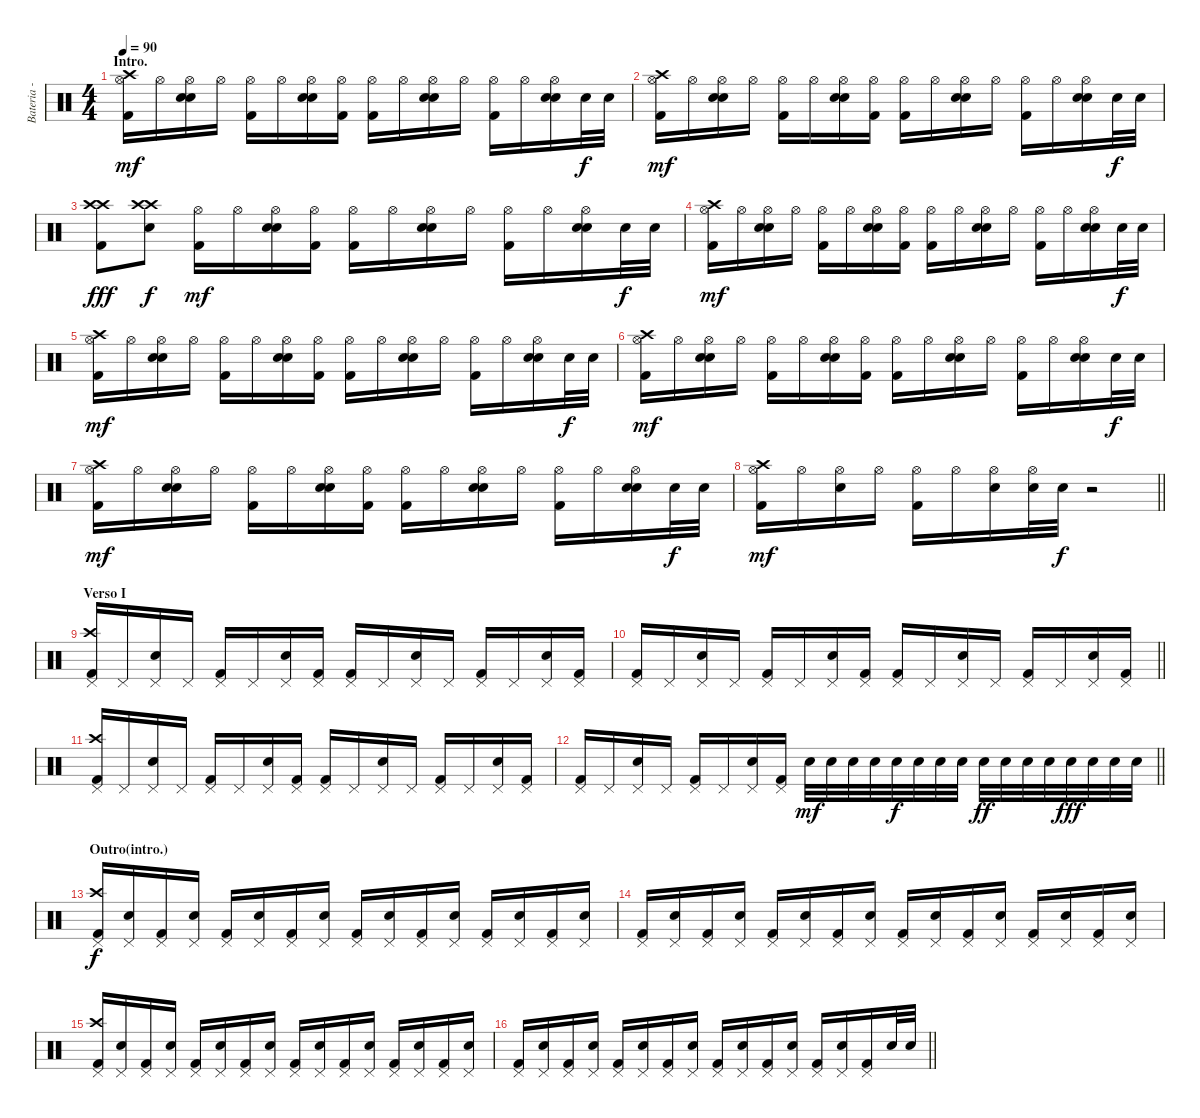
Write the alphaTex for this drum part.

\track ("Bateria - Larzon" "Bateria - ") {instrument percussion}
\staff {score}
\articulation defaults
\ts (4 4)
\section ("" "Intro.")
\tempo 90
\clef neutral
\ks c
("Kick (hit) 2" "Crash high (hit)" "Hi-Hat (open)").16{dy mf} "Hi-Hat (open)".16 ("Snare (hit) 2" "Snare (hit) 2" "Hi-Hat (open)").16 "Hi-Hat (open)".16 ("Kick (hit) 2" "Hi-Hat (open)").16 "Hi-Hat (open)".16 ("Snare (hit) 2" "Snare (hit) 2" "Hi-Hat (open)").16 ("Kick (hit) 2" "Hi-Hat (open)").16 ("Kick (hit) 2" "Hi-Hat (open)").16 "Hi-Hat (open)".16 ("Snare (hit) 2" "Snare (hit) 2" "Hi-Hat (open)").16 "Hi-Hat (open)".16 ("Kick (hit) 2" "Hi-Hat (open)").16 "Hi-Hat (open)".16 ("Snare (hit) 2" "Snare (hit) 2" "Hi-Hat (open)").16 "Snare (hit) 2".32{dy f} "Snare (hit) 2".32 |
("Kick (hit) 2" "Crash high (hit)" "Hi-Hat (open)").16{dy mf} "Hi-Hat (open)".16 ("Snare (hit) 2" "Snare (hit) 2" "Hi-Hat (open)").16 "Hi-Hat (open)".16 ("Kick (hit) 2" "Hi-Hat (open)").16 "Hi-Hat (open)".16 ("Snare (hit) 2" "Snare (hit) 2" "Hi-Hat (open)").16 ("Kick (hit) 2" "Hi-Hat (open)").16 ("Kick (hit) 2" "Hi-Hat (open)").16 "Hi-Hat (open)".16 ("Snare (hit) 2" "Snare (hit) 2" "Hi-Hat (open)").16 "Hi-Hat (open)".16 ("Kick (hit) 2" "Hi-Hat (open)").16 "Hi-Hat (open)".16 ("Snare (hit) 2" "Snare (hit) 2" "Hi-Hat (open)").16 "Snare (hit) 2".32{dy f} "Snare (hit) 2".32 |
("Kick (hit) 2" "Crash high (hit)" "Crash high (hit)").8{dy fff} ("Snare (hit) 2" "Crash high (hit)" "Crash high (hit)").8{dy f} ("Kick (hit) 2" "Hi-Hat (open)").16{dy mf} "Hi-Hat (open)".16 ("Snare (hit) 2" "Snare (hit) 2" "Hi-Hat (open)").16 ("Kick (hit) 2" "Hi-Hat (open)").16 ("Kick (hit) 2" "Hi-Hat (open)").16 "Hi-Hat (open)".16 ("Snare (hit) 2" "Snare (hit) 2" "Hi-Hat (open)").16 "Hi-Hat (open)".16 ("Kick (hit) 2" "Hi-Hat (open)").16 "Hi-Hat (open)".16 ("Snare (hit) 2" "Snare (hit) 2" "Hi-Hat (open)").16 "Snare (hit) 2".32{dy f} "Snare (hit) 2".32 |
("Kick (hit) 2" "Crash high (hit)" "Hi-Hat (open)").16{dy mf} "Hi-Hat (open)".16 ("Snare (hit) 2" "Snare (hit) 2" "Hi-Hat (open)").16 "Hi-Hat (open)".16 ("Kick (hit) 2" "Hi-Hat (open)").16 "Hi-Hat (open)".16 ("Snare (hit) 2" "Snare (hit) 2" "Hi-Hat (open)").16 ("Kick (hit) 2" "Hi-Hat (open)").16 ("Kick (hit) 2" "Hi-Hat (open)").16 "Hi-Hat (open)".16 ("Snare (hit) 2" "Snare (hit) 2" "Hi-Hat (open)").16 "Hi-Hat (open)".16 ("Kick (hit) 2" "Hi-Hat (open)").16 "Hi-Hat (open)".16 ("Snare (hit) 2" "Snare (hit) 2" "Hi-Hat (open)").16 "Snare (hit) 2".32{dy f} "Snare (hit) 2".32 |
("Kick (hit) 2" "Crash high (hit)" "Hi-Hat (open)").16{dy mf} "Hi-Hat (open)".16 ("Snare (hit) 2" "Snare (hit) 2" "Hi-Hat (open)").16 "Hi-Hat (open)".16 ("Kick (hit) 2" "Hi-Hat (open)").16 "Hi-Hat (open)".16 ("Snare (hit) 2" "Snare (hit) 2" "Hi-Hat (open)").16 ("Kick (hit) 2" "Hi-Hat (open)").16 ("Kick (hit) 2" "Hi-Hat (open)").16 "Hi-Hat (open)".16 ("Snare (hit) 2" "Snare (hit) 2" "Hi-Hat (open)").16 "Hi-Hat (open)".16 ("Kick (hit) 2" "Hi-Hat (open)").16 "Hi-Hat (open)".16 ("Snare (hit) 2" "Snare (hit) 2" "Hi-Hat (open)").16 "Snare (hit) 2".32{dy f} "Snare (hit) 2".32 |
("Kick (hit) 2" "Crash high (hit)" "Hi-Hat (open)").16{dy mf} "Hi-Hat (open)".16 ("Snare (hit) 2" "Snare (hit) 2" "Hi-Hat (open)").16 "Hi-Hat (open)".16 ("Kick (hit) 2" "Hi-Hat (open)").16 "Hi-Hat (open)".16 ("Snare (hit) 2" "Snare (hit) 2" "Hi-Hat (open)").16 ("Kick (hit) 2" "Hi-Hat (open)").16 ("Kick (hit) 2" "Hi-Hat (open)").16 "Hi-Hat (open)".16 ("Snare (hit) 2" "Snare (hit) 2" "Hi-Hat (open)").16 "Hi-Hat (open)".16 ("Kick (hit) 2" "Hi-Hat (open)").16 "Hi-Hat (open)".16 ("Snare (hit) 2" "Snare (hit) 2" "Hi-Hat (open)").16 "Snare (hit) 2".32{dy f} "Snare (hit) 2".32 |
("Kick (hit) 2" "Crash high (hit)" "Hi-Hat (open)").16{dy mf} "Hi-Hat (open)".16 ("Snare (hit) 2" "Snare (hit) 2" "Hi-Hat (open)").16 "Hi-Hat (open)".16 ("Kick (hit) 2" "Hi-Hat (open)").16 "Hi-Hat (open)".16 ("Snare (hit) 2" "Snare (hit) 2" "Hi-Hat (open)").16 ("Kick (hit) 2" "Hi-Hat (open)").16 ("Kick (hit) 2" "Hi-Hat (open)").16 "Hi-Hat (open)".16 ("Snare (hit) 2" "Snare (hit) 2" "Hi-Hat (open)").16 "Hi-Hat (open)".16 ("Kick (hit) 2" "Hi-Hat (open)").16 "Hi-Hat (open)".16 ("Snare (hit) 2" "Snare (hit) 2" "Hi-Hat (open)").16 "Snare (hit) 2".32{dy f} "Snare (hit) 2".32 |
\barLineRight lightlight
("Kick (hit) 2" "Crash high (hit)" "Hi-Hat (open)").16{dy mf} "Hi-Hat (open)".16 ("Snare (hit) 2" "Hi-Hat (open)").16 "Hi-Hat (open)".16 ("Kick (hit) 2" "Hi-Hat (open)").16 "Hi-Hat (open)".16 ("Snare (hit) 2" "Hi-Hat (open)").16 ("Snare (hit) 2" "Hi-Hat (open)").32 "Snare (hit) 2".32{dy f} r.2 |
\section ("" "Verso I")
("Kick (hit) 2" "Pedal Hi-Hat (hit)" "Crash high (hit)").16 "Pedal Hi-Hat (hit)".16 ("Snare (hit) 2" "Pedal Hi-Hat (hit)").16 "Pedal Hi-Hat (hit)".16 ("Kick (hit) 2" "Pedal Hi-Hat (hit)").16 "Pedal Hi-Hat (hit)".16 ("Snare (hit) 2" "Pedal Hi-Hat (hit)").16 ("Kick (hit) 2" "Pedal Hi-Hat (hit)").16 ("Kick (hit) 2" "Pedal Hi-Hat (hit)").16 "Pedal Hi-Hat (hit)".16 ("Snare (hit) 2" "Pedal Hi-Hat (hit)").16 "Pedal Hi-Hat (hit)".16 ("Kick (hit) 2" "Pedal Hi-Hat (hit)").16 "Pedal Hi-Hat (hit)".16 ("Snare (hit) 2" "Pedal Hi-Hat (hit)").16 ("Kick (hit) 2" "Pedal Hi-Hat (hit)").16 |
\barLineRight lightlight
("Kick (hit) 2" "Pedal Hi-Hat (hit)").16 "Pedal Hi-Hat (hit)".16 ("Snare (hit) 2" "Pedal Hi-Hat (hit)").16 "Pedal Hi-Hat (hit)".16 ("Kick (hit) 2" "Pedal Hi-Hat (hit)").16 "Pedal Hi-Hat (hit)".16 ("Snare (hit) 2" "Pedal Hi-Hat (hit)").16 ("Kick (hit) 2" "Pedal Hi-Hat (hit)").16 ("Kick (hit) 2" "Pedal Hi-Hat (hit)").16 "Pedal Hi-Hat (hit)".16 ("Snare (hit) 2" "Pedal Hi-Hat (hit)").16 "Pedal Hi-Hat (hit)".16 ("Kick (hit) 2" "Pedal Hi-Hat (hit)").16 "Pedal Hi-Hat (hit)".16 ("Snare (hit) 2" "Pedal Hi-Hat (hit)").16 ("Kick (hit) 2" "Pedal Hi-Hat (hit)").16 |
("Kick (hit) 2" "Pedal Hi-Hat (hit)" "Crash high (hit)").16 "Pedal Hi-Hat (hit)".16 ("Snare (hit) 2" "Pedal Hi-Hat (hit)").16 "Pedal Hi-Hat (hit)".16 ("Kick (hit) 2" "Pedal Hi-Hat (hit)").16 "Pedal Hi-Hat (hit)".16 ("Snare (hit) 2" "Pedal Hi-Hat (hit)").16 ("Kick (hit) 2" "Pedal Hi-Hat (hit)").16 ("Kick (hit) 2" "Pedal Hi-Hat (hit)").16 "Pedal Hi-Hat (hit)".16 ("Snare (hit) 2" "Pedal Hi-Hat (hit)").16 "Pedal Hi-Hat (hit)".16 ("Kick (hit) 2" "Pedal Hi-Hat (hit)").16 "Pedal Hi-Hat (hit)".16 ("Snare (hit) 2" "Pedal Hi-Hat (hit)").16 ("Kick (hit) 2" "Pedal Hi-Hat (hit)").16 |
\barLineRight lightlight
("Kick (hit) 2" "Pedal Hi-Hat (hit)").16 "Pedal Hi-Hat (hit)".16 ("Snare (hit) 2" "Pedal Hi-Hat (hit)").16 "Pedal Hi-Hat (hit)".16 ("Kick (hit) 2" "Pedal Hi-Hat (hit)").16 "Pedal Hi-Hat (hit)".16 ("Snare (hit) 2" "Pedal Hi-Hat (hit)").16 ("Kick (hit) 2" "Pedal Hi-Hat (hit)").16 "Snare (hit) 2".32{dy mf} "Snare (hit) 2".32 "Snare (hit) 2".32 "Snare (hit) 2".32 "Snare (hit) 2".32{dy f} "Snare (hit) 2".32 "Snare (hit) 2".32 "Snare (hit) 2".32 "Snare (hit) 2".32{dy ff} "Snare (hit) 2".32 "Snare (hit) 2".32 "Snare (hit) 2".32 "Snare (hit) 2".32{dy fff} "Snare (hit) 2".32 "Snare (hit) 2".32 "Snare (hit) 2".32 |
\section ("" "Outro(intro.)")
("Kick (hit) 2" "Crash high (hit)" "Pedal Hi-Hat (hit)").16{dy f} ("Snare (hit) 2" "Pedal Hi-Hat (hit)").16 ("Kick (hit) 2" "Pedal Hi-Hat (hit)").16 ("Snare (hit) 2" "Pedal Hi-Hat (hit)").16 ("Kick (hit) 2" "Pedal Hi-Hat (hit)").16 ("Snare (hit) 2" "Pedal Hi-Hat (hit)").16 ("Kick (hit) 2" "Pedal Hi-Hat (hit)").16 ("Snare (hit) 2" "Pedal Hi-Hat (hit)").16 ("Kick (hit) 2" "Pedal Hi-Hat (hit)").16 ("Snare (hit) 2" "Pedal Hi-Hat (hit)").16 ("Kick (hit) 2" "Pedal Hi-Hat (hit)").16 ("Snare (hit) 2" "Pedal Hi-Hat (hit)").16 ("Kick (hit) 2" "Pedal Hi-Hat (hit)").16 ("Snare (hit) 2" "Pedal Hi-Hat (hit)").16 ("Kick (hit) 2" "Pedal Hi-Hat (hit)").16 ("Snare (hit) 2" "Pedal Hi-Hat (hit)").16 |
("Kick (hit) 2" "Pedal Hi-Hat (hit)").16 ("Snare (hit) 2" "Pedal Hi-Hat (hit)").16 ("Kick (hit) 2" "Pedal Hi-Hat (hit)").16 ("Snare (hit) 2" "Pedal Hi-Hat (hit)").16 ("Kick (hit) 2" "Pedal Hi-Hat (hit)").16 ("Snare (hit) 2" "Pedal Hi-Hat (hit)").16 ("Kick (hit) 2" "Pedal Hi-Hat (hit)").16 ("Snare (hit) 2" "Pedal Hi-Hat (hit)").16 ("Kick (hit) 2" "Pedal Hi-Hat (hit)").16 ("Snare (hit) 2" "Pedal Hi-Hat (hit)").16 ("Kick (hit) 2" "Pedal Hi-Hat (hit)").16 ("Snare (hit) 2" "Pedal Hi-Hat (hit)").16 ("Kick (hit) 2" "Pedal Hi-Hat (hit)").16 ("Snare (hit) 2" "Pedal Hi-Hat (hit)").16 ("Kick (hit) 2" "Pedal Hi-Hat (hit)").16 ("Snare (hit) 2" "Pedal Hi-Hat (hit)").16 |
("Kick (hit) 2" "Crash high (hit)" "Pedal Hi-Hat (hit)").16 ("Snare (hit) 2" "Pedal Hi-Hat (hit)").16 ("Kick (hit) 2" "Pedal Hi-Hat (hit)").16 ("Snare (hit) 2" "Pedal Hi-Hat (hit)").16 ("Kick (hit) 2" "Pedal Hi-Hat (hit)").16 ("Snare (hit) 2" "Pedal Hi-Hat (hit)").16 ("Kick (hit) 2" "Pedal Hi-Hat (hit)").16 ("Snare (hit) 2" "Pedal Hi-Hat (hit)").16 ("Kick (hit) 2" "Pedal Hi-Hat (hit)").16 ("Snare (hit) 2" "Pedal Hi-Hat (hit)").16 ("Kick (hit) 2" "Pedal Hi-Hat (hit)").16 ("Snare (hit) 2" "Pedal Hi-Hat (hit)").16 ("Kick (hit) 2" "Pedal Hi-Hat (hit)").16 ("Snare (hit) 2" "Pedal Hi-Hat (hit)").16 ("Kick (hit) 2" "Pedal Hi-Hat (hit)").16 ("Snare (hit) 2" "Pedal Hi-Hat (hit)").16 |
\barLineRight lightlight
("Kick (hit) 2" "Pedal Hi-Hat (hit)").16 ("Snare (hit) 2" "Pedal Hi-Hat (hit)").16 ("Kick (hit) 2" "Pedal Hi-Hat (hit)").16 ("Snare (hit) 2" "Pedal Hi-Hat (hit)").16 ("Kick (hit) 2" "Pedal Hi-Hat (hit)").16 ("Snare (hit) 2" "Pedal Hi-Hat (hit)").16 ("Kick (hit) 2" "Pedal Hi-Hat (hit)").16 ("Snare (hit) 2" "Pedal Hi-Hat (hit)").16 ("Kick (hit) 2" "Pedal Hi-Hat (hit)").16 ("Snare (hit) 2" "Pedal Hi-Hat (hit)").16 ("Kick (hit) 2" "Pedal Hi-Hat (hit)").16 ("Snare (hit) 2" "Pedal Hi-Hat (hit)").16 ("Kick (hit) 2" "Pedal Hi-Hat (hit)").16 ("Snare (hit) 2" "Pedal Hi-Hat (hit)").16 ("Kick (hit) 2" "Pedal Hi-Hat (hit)").16 "Snare (hit) 2".32 "Snare (hit) 2".32
